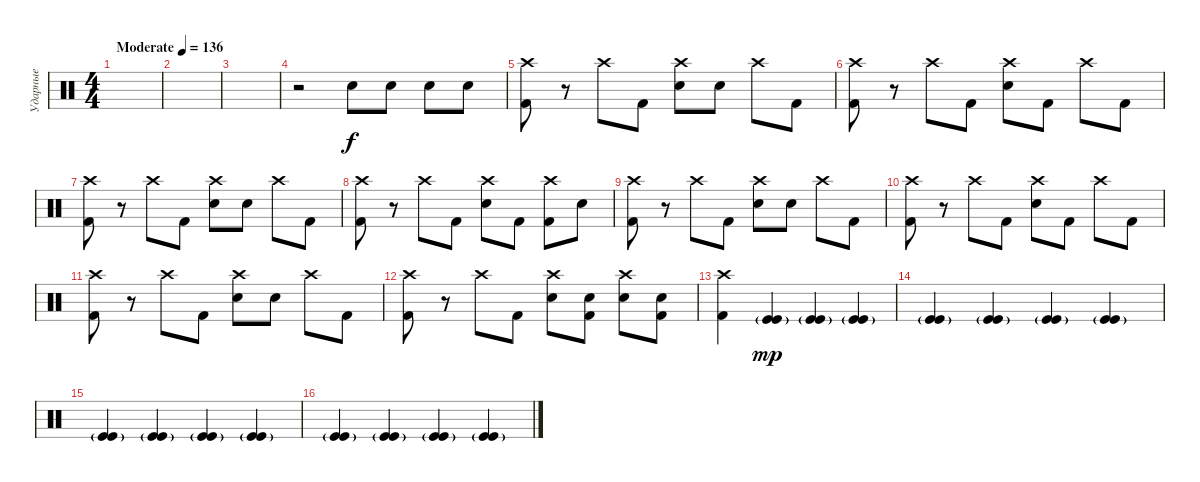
\track ("Ударные" "Ударные") {instrument percussion}
\staff {score}
\articulation defaults
\ts (4 4)
\tempo (136 "Moderate")
\clef neutral
\ks c
|
|
|
r.2 "Snare (hit) 2".8 "Snare (hit) 2".8 "Snare (hit) 2".8 "Snare (hit) 2".8 |
("Crash high (hit)" "Kick (hit) 2").8 r.8 "Crash high (hit)".8 "Kick (hit) 2".8 ("Crash high (hit)" "Snare (hit) 2").8 "Snare (hit) 2".8 "Crash high (hit)".8 "Kick (hit) 2".8 |
("Crash high (hit)" "Kick (hit) 2").8 r.8 "Crash high (hit)".8 "Kick (hit) 2".8 ("Crash high (hit)" "Snare (hit) 2").8 "Kick (hit) 2".8 "Crash high (hit)".8 "Kick (hit) 2".8 |
("Crash high (hit)" "Kick (hit) 2").8 r.8 "Crash high (hit)".8 "Kick (hit) 2".8 ("Crash high (hit)" "Snare (hit) 2").8 "Snare (hit) 2".8 "Crash high (hit)".8 "Kick (hit) 2".8 |
("Crash high (hit)" "Kick (hit) 2").8 r.8 "Crash high (hit)".8 "Kick (hit) 2".8 ("Crash high (hit)" "Snare (hit) 2").8 "Kick (hit) 2".8 ("Crash high (hit)" "Kick (hit) 2").8 "Snare (hit) 2".8 |
("Crash high (hit)" "Kick (hit) 2").8 r.8 "Crash high (hit)".8 "Kick (hit) 2".8 ("Crash high (hit)" "Snare (hit) 2").8 "Snare (hit) 2".8 "Crash high (hit)".8 "Kick (hit) 2".8 |
("Crash high (hit)" "Kick (hit) 2").8 r.8 "Crash high (hit)".8 "Kick (hit) 2".8 ("Crash high (hit)" "Snare (hit) 2").8 "Kick (hit) 2".8 "Crash high (hit)".8 "Kick (hit) 2".8 |
("Crash high (hit)" "Kick (hit) 2").8 r.8 "Crash high (hit)".8 "Kick (hit) 2".8 ("Crash high (hit)" "Snare (hit) 2").8 "Snare (hit) 2".8 "Crash high (hit)".8 "Kick (hit) 2".8 |
("Crash high (hit)" "Kick (hit) 2").8 r.8 "Crash high (hit)".8 "Kick (hit) 2".8 ("Crash high (hit)" "Snare (hit) 2").8 ("Snare (hit) 2" "Kick (hit) 2").8 ("Crash high (hit)" "Snare (hit) 2").8 ("Snare (hit) 2" "Kick (hit) 2").8 |
("Crash high (hit)" "Kick (hit) 2").4 ("Kick (hit)"{g} "Kick (hit)").4{dy mp} ("Kick (hit)"{g} "Kick (hit)").4 ("Kick (hit)"{g} "Kick (hit)").4 |
("Kick (hit)"{g} "Kick (hit)").4 ("Kick (hit)"{g} "Kick (hit)").4 ("Kick (hit)"{g} "Kick (hit)").4 ("Kick (hit)"{g} "Kick (hit)").4 |
("Kick (hit)"{g} "Kick (hit)").4 ("Kick (hit)"{g} "Kick (hit)").4 ("Kick (hit)"{g} "Kick (hit)").4 ("Kick (hit)"{g} "Kick (hit)").4 |
("Kick (hit)"{g} "Kick (hit)").4 ("Kick (hit)"{g} "Kick (hit)").4 ("Kick (hit)"{g} "Kick (hit)").4 ("Kick (hit)"{g} "Kick (hit)").4
